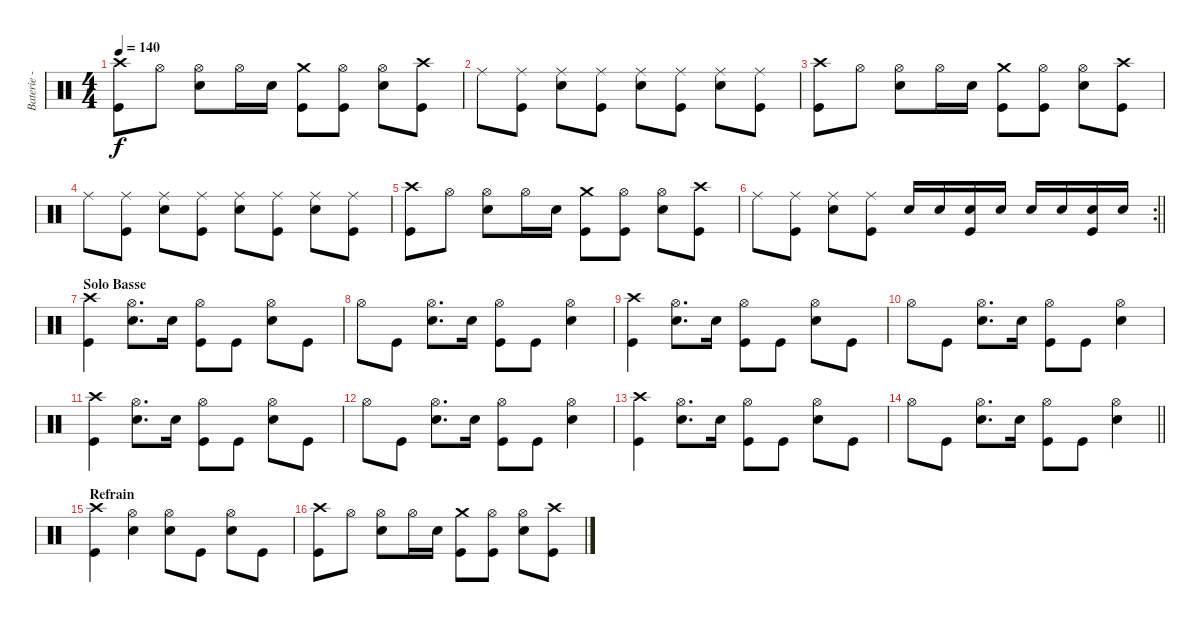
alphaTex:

\track ("Baterie - Dave Grohl" "Baterie - ") {instrument percussion}
\staff {score}
\articulation defaults
\ts (4 4)
\tempo 140
\clef neutral
\ks c
("Crash high (hit)" "Kick (hit)").8{dy f} "Hi-Hat (open)".8 ("Hi-Hat (open)" "Electric Snare (hit)").8 "Hi-Hat (open)".16 "Electric Snare (hit)".16 ("Crash medium (hit)" "Kick (hit)").8 ("Hi-Hat (open)" "Kick (hit)").8 ("Hi-Hat (open)" "Electric Snare (hit)").8 ("Crash high (hit)" "Kick (hit)").8 |
"Ride (middle)".8 ("Ride (middle)" "Kick (hit)").8 ("Ride (middle)" "Electric Snare (hit)").8 ("Ride (middle)" "Kick (hit)").8 ("Ride (middle)" "Electric Snare (hit)").8 ("Ride (middle)" "Kick (hit)").8 ("Ride (middle)" "Electric Snare (hit)").8 ("Ride (middle)" "Kick (hit)").8 |
("Crash high (hit)" "Kick (hit)").8 "Hi-Hat (open)".8 ("Hi-Hat (open)" "Electric Snare (hit)").8 "Hi-Hat (open)".16 "Electric Snare (hit)".16 ("Crash medium (hit)" "Kick (hit)").8 ("Hi-Hat (open)" "Kick (hit)").8 ("Hi-Hat (open)" "Electric Snare (hit)").8 ("Crash high (hit)" "Kick (hit)").8 |
"Ride (middle)".8 ("Ride (middle)" "Kick (hit)").8 ("Ride (middle)" "Electric Snare (hit)").8 ("Ride (middle)" "Kick (hit)").8 ("Ride (middle)" "Electric Snare (hit)").8 ("Ride (middle)" "Kick (hit)").8 ("Ride (middle)" "Electric Snare (hit)").8 ("Ride (middle)" "Kick (hit)").8 |
("Crash high (hit)" "Kick (hit)").8 "Hi-Hat (open)".8 ("Hi-Hat (open)" "Electric Snare (hit)").8 "Hi-Hat (open)".16 "Electric Snare (hit)".16 ("Crash medium (hit)" "Kick (hit)").8 ("Hi-Hat (open)" "Kick (hit)").8 ("Hi-Hat (open)" "Electric Snare (hit)").8 ("Crash high (hit)" "Kick (hit)").8 |
\rc 2
\barLineRight lightlight "Ride (middle)".8
("Ride (middle)" "Kick (hit)").8 ("Ride (middle)" "Electric Snare (hit)").8 ("Ride (middle)" "Kick (hit)").8 "Electric Snare (hit)".16 "Electric Snare (hit)".16 ("Electric Snare (hit)" "Kick (hit)").16 "Electric Snare (hit)".16 "Electric Snare (hit)".16 "Electric Snare (hit)".16 ("Electric Snare (hit)" "Kick (hit)").16 "Electric Snare (hit)".16 |
\section ("" "Solo Basse")
("Crash high (hit)" "Kick (hit)").4 ("Hi-Hat (open)" "Electric Snare (hit)").8{d} "Electric Snare (hit)".16 ("Hi-Hat (open)" "Kick (hit)").8 "Kick (hit)".8 ("Hi-Hat (open)" "Electric Snare (hit)").8 "Kick (hit)".8 |
"Hi-Hat (open)".8 "Kick (hit)".8 ("Hi-Hat (open)" "Electric Snare (hit)").8{d} "Electric Snare (hit)".16 ("Hi-Hat (open)" "Kick (hit)").8 "Kick (hit)".8 ("Hi-Hat (open)" "Electric Snare (hit)").4 |
("Crash high (hit)" "Kick (hit)").4 ("Hi-Hat (open)" "Electric Snare (hit)").8{d} "Electric Snare (hit)".16 ("Hi-Hat (open)" "Kick (hit)").8 "Kick (hit)".8 ("Hi-Hat (open)" "Electric Snare (hit)").8 "Kick (hit)".8 |
"Hi-Hat (open)".8 "Kick (hit)".8 ("Hi-Hat (open)" "Electric Snare (hit)").8{d} "Electric Snare (hit)".16 ("Hi-Hat (open)" "Kick (hit)").8 "Kick (hit)".8 ("Hi-Hat (open)" "Electric Snare (hit)").4 |
("Crash high (hit)" "Kick (hit)").4 ("Hi-Hat (open)" "Electric Snare (hit)").8{d} "Electric Snare (hit)".16 ("Hi-Hat (open)" "Kick (hit)").8 "Kick (hit)".8 ("Hi-Hat (open)" "Electric Snare (hit)").8 "Kick (hit)".8 |
"Hi-Hat (open)".8 "Kick (hit)".8 ("Hi-Hat (open)" "Electric Snare (hit)").8{d} "Electric Snare (hit)".16 ("Hi-Hat (open)" "Kick (hit)").8 "Kick (hit)".8 ("Hi-Hat (open)" "Electric Snare (hit)").4 |
("Crash high (hit)" "Kick (hit)").4 ("Hi-Hat (open)" "Electric Snare (hit)").8{d} "Electric Snare (hit)".16 ("Hi-Hat (open)" "Kick (hit)").8 "Kick (hit)".8 ("Hi-Hat (open)" "Electric Snare (hit)").8 "Kick (hit)".8 |
\barLineRight lightlight "Hi-Hat (open)".8 "Kick (hit)".8
("Hi-Hat (open)" "Electric Snare (hit)").8{d} "Electric Snare (hit)".16 ("Hi-Hat (open)" "Kick (hit)").8 "Kick (hit)".8 ("Hi-Hat (open)" "Electric Snare (hit)").4 |
\section ("" "Refrain")
("Crash high (hit)" "Kick (hit)").4 ("Hi-Hat (open)" "Electric Snare (hit)").4 ("Hi-Hat (open)" "Electric Snare (hit)").8 "Kick (hit)".8 ("Hi-Hat (open)" "Electric Snare (hit)").8 "Kick (hit)".8 |
("Crash high (hit)" "Kick (hit)").8 "Hi-Hat (open)".8 ("Hi-Hat (open)" "Electric Snare (hit)").8 "Hi-Hat (open)".16 "Electric Snare (hit)".16 ("Crash medium (hit)" "Kick (hit)").8 ("Hi-Hat (open)" "Kick (hit)").8 ("Hi-Hat (open)" "Electric Snare (hit)").8 ("Crash high (hit)" "Kick (hit)").8
